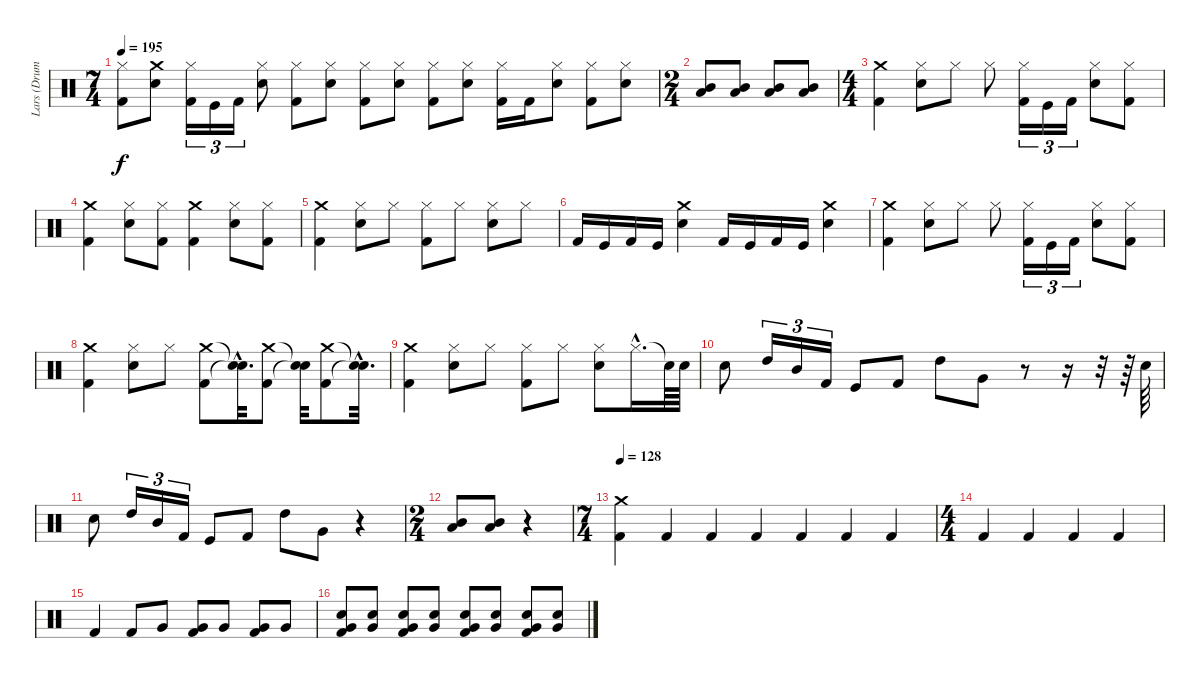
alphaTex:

\track ("Lars (Drums)" "Lars (Drum") {instrument percussion}
\staff {score}
\articulation defaults
\ts (7 4)
\tempo 195
\clef neutral
\ks c
("Kick (hit) 2" "Hi-Hat (closed)").8{dy f} ("Crash medium (hit)" "Snare (hit) 2").8 ("Kick (hit) 2" "Hi-Hat (closed)").16{tu (3 2)} "Kick (hit)".16{tu (3 2)} "Kick (hit) 2".16{tu (3 2)} ("Snare (hit) 2" "Hi-Hat (closed)").8 ("Hi-Hat (closed)" "Kick (hit) 2").8 ("Hi-Hat (closed)" "Snare (hit) 2").8 ("Hi-Hat (closed)" "Kick (hit) 2").8 ("Snare (hit) 2" "Hi-Hat (closed)").8 ("Hi-Hat (closed)" "Kick (hit) 2").8 ("Snare (hit) 2" "Hi-Hat (closed)").8 ("Hi-Hat (closed)" "Kick (hit) 2").16 "Kick (hit) 2".16 ("Snare (hit) 2" "Hi-Hat (closed)").8 ("Hi-Hat (closed)" "Kick (hit) 2").8 ("Snare (hit) 2" "Hi-Hat (closed)").8 |
\ts (2 4)
("Mid Tom (hit)" "Low Tom (hit)").8 ("Mid Tom (hit)" "Low Tom (hit)").8 ("Mid Tom (hit)" "Low Tom (hit)").8 ("Mid Tom (hit)" "Low Tom (hit)").8 |
\ts (4 4)
("Kick (hit) 2" "Crash medium (hit)").4 ("Snare (hit) 2" "Hi-Hat (closed)").8 "Hi-Hat (closed)".8 "Hi-Hat (closed)".8 ("Kick (hit) 2" "Hi-Hat (closed)").16{tu (3 2)} "Kick (hit)".16{tu (3 2)} "Kick (hit) 2".16{tu (3 2)} ("Snare (hit) 2" "Hi-Hat (closed)").8 ("Kick (hit) 2" "Hi-Hat (closed)").8 |
("Kick (hit) 2" "Crash medium (hit)").4 ("Hi-Hat (closed)" "Snare (hit) 2").8 ("Kick (hit) 2" "Hi-Hat (closed)").8 ("Crash medium (hit)" "Kick (hit) 2").4 ("Hi-Hat (closed)" "Snare (hit) 2").8 ("Kick (hit) 2" "Hi-Hat (closed)").8 |
("Kick (hit) 2" "Crash medium (hit)").4 ("Hi-Hat (closed)" "Snare (hit) 2").8 "Hi-Hat (closed)".8 ("Hi-Hat (closed)" "Kick (hit) 2").8 "Hi-Hat (closed)".8 ("Snare (hit) 2" "Hi-Hat (closed)").8 "Hi-Hat (closed)".8 |
"Kick (hit) 2".16 "Kick (hit)".16 "Kick (hit) 2".16 "Kick (hit)".16 ("Crash medium (hit)" "Snare (hit) 2").4 "Kick (hit) 2".16 "Kick (hit)".16 "Kick (hit) 2".16 "Kick (hit)".16 ("Snare (hit) 2" "Crash medium (hit)").4 |
("Kick (hit) 2" "Crash medium (hit)").4 ("Snare (hit) 2" "Hi-Hat (closed)").8 "Hi-Hat (closed)".8 "Hi-Hat (closed)".8 ("Kick (hit) 2" "Hi-Hat (closed)").16{tu (3 2)} "Kick (hit)".16{tu (3 2)} "Kick (hit) 2".16{tu (3 2)} ("Snare (hit) 2" "Hi-Hat (closed)").8 ("Kick (hit) 2" "Hi-Hat (closed)").8 |
("Kick (hit) 2" "Crash medium (hit)").4 ("Hi-Hat (closed)" "Snare (hit) 2").8 "Hi-Hat (closed)".8 ("Kick (hit) 2" "Crash medium (hit)").8 ("Snare (hit)"{hac t} "Snare (hit)"{hac t}).32{d} ("Kick (hit) 2" "Crash medium (hit)").8 ("Snare (hit)"{t} "Snare (hit)"{t}).32 ("Kick (hit) 2" "Crash medium (hit)").8 ("Snare (hit)"{hac t} "Snare (hit)"{hac t}).32{d} |
("Kick (hit) 2" "Crash medium (hit)").4 ("Hi-Hat (closed)" "Snare (hit) 2").8 "Hi-Hat (closed)".8 ("Hi-Hat (closed)" "Kick (hit) 2").8 "Hi-Hat (closed)".8 ("Snare (hit) 2" "Hi-Hat (closed)").8 "Hi-Hat (closed)"{hac}.16{d} "Snare (hit)"{t}.64 "Snare (hit) 2".64 |
"Snare (hit) 2".8 "High Tom (hit)".16{tu (3 2)} "Mid Tom (hit)".16{tu (3 2)} "Kick (hit) 2".16{tu (3 2)} "Kick (hit)".8 "Kick (hit) 2".8 "High Tom (hit)".8 "Very Low Tom (hit)".8 r.8 r.16 r.32 r.64 "Snare (hit) 2".64 |
"Snare (hit) 2".8 "High Tom (hit)".16{tu (3 2)} "Mid Tom (hit)".16{tu (3 2)} "Kick (hit) 2".16{tu (3 2)} "Kick (hit)".8 "Kick (hit) 2".8 "High Tom (hit)".8 "Very Low Tom (hit)".8 r.4 |
\ts (2 4)
("Mid Tom (hit)" "Low Tom (hit)").8 ("Mid Tom (hit)" "Low Tom (hit)").8 r.4 |
\ts (7 4)
\tempo 128
("Kick (hit) 2" "Crash medium (hit)").4 "Kick (hit) 2".4 "Kick (hit) 2".4 "Kick (hit) 2".4 "Kick (hit) 2".4 "Kick (hit) 2".4 "Kick (hit) 2".4 |
\ts (4 4)
"Kick (hit) 2".4 "Kick (hit) 2".4 "Kick (hit) 2".4 "Kick (hit) 2".4 |
"Kick (hit) 2".4 "Kick (hit) 2".8 "Very Low Tom (hit)".8 ("Very Low Tom (hit)" "Kick (hit) 2").8 "Very Low Tom (hit)".8 ("Very Low Tom (hit)" "Kick (hit) 2").8 "Very Low Tom (hit)".8 |
("Snare (hit) 2" "Very Low Tom (hit)" "Kick (hit) 2").8 ("Snare (hit) 2" "Very Low Tom (hit)").8 ("Snare (hit) 2" "Very Low Tom (hit)" "Kick (hit) 2").8 ("Snare (hit) 2" "Very Low Tom (hit)").8 ("Snare (hit) 2" "Very Low Tom (hit)" "Kick (hit) 2").8 ("Snare (hit) 2" "Very Low Tom (hit)").8 ("Snare (hit) 2" "Very Low Tom (hit)" "Kick (hit) 2").8 ("Snare (hit) 2" "Very Low Tom (hit)").8
